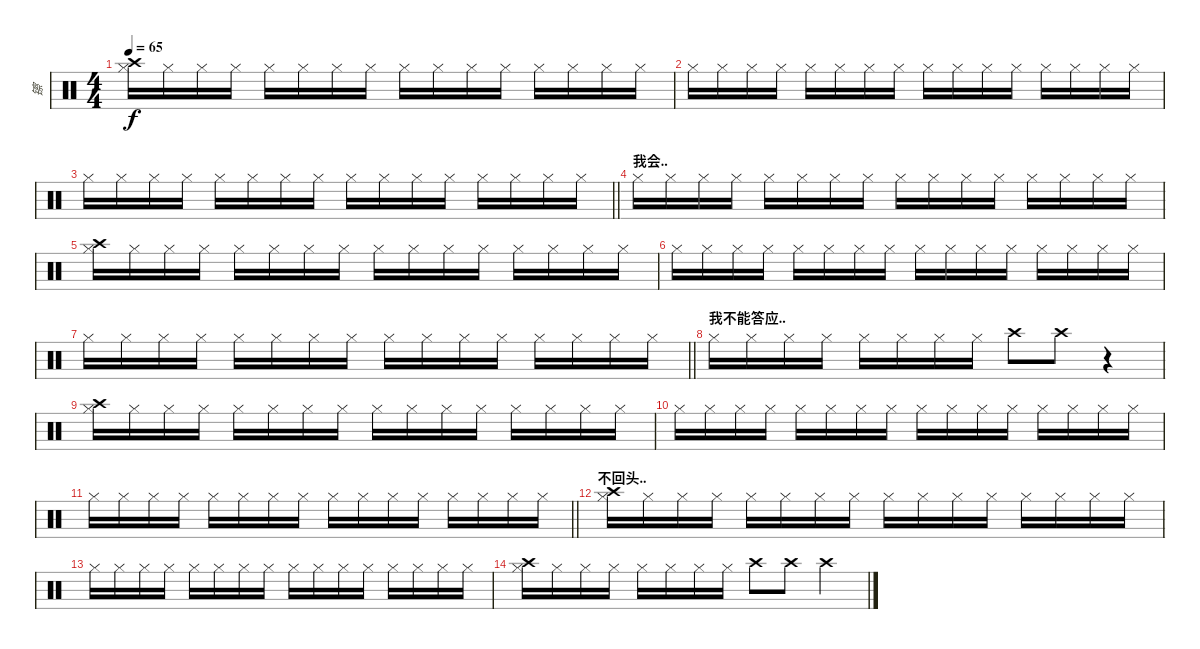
\track ("镲" "镲") {instrument percussion}
\staff {score}
\articulation defaults
\ts (4 4)
\tempo 65
\clef neutral
\ks c
("Crash high (hit)" "Hi-Hat (closed)").16{dy f} "Hi-Hat (closed)".16 "Hi-Hat (closed)".16 "Hi-Hat (closed)".16 "Hi-Hat (closed)".16 "Hi-Hat (closed)".16 "Hi-Hat (closed)".16 "Hi-Hat (closed)".16 "Hi-Hat (closed)".16 "Hi-Hat (closed)".16 "Hi-Hat (closed)".16 "Hi-Hat (closed)".16 "Hi-Hat (closed)".16 "Hi-Hat (closed)".16 "Hi-Hat (closed)".16 "Hi-Hat (closed)".16 |
"Hi-Hat (closed)".16 "Hi-Hat (closed)".16 "Hi-Hat (closed)".16 "Hi-Hat (closed)".16 "Hi-Hat (closed)".16 "Hi-Hat (closed)".16 "Hi-Hat (closed)".16 "Hi-Hat (closed)".16 "Hi-Hat (closed)".16 "Hi-Hat (closed)".16 "Hi-Hat (closed)".16 "Hi-Hat (closed)".16 "Hi-Hat (closed)".16 "Hi-Hat (closed)".16 "Hi-Hat (closed)".16 "Hi-Hat (closed)".16 |
\barLineRight lightlight "Hi-Hat (closed)".16 "Hi-Hat (closed)".16 "Hi-Hat (closed)".16 "Hi-Hat (closed)".16 "Hi-Hat (closed)".16 "Hi-Hat (closed)".16 "Hi-Hat (closed)".16 "Hi-Hat (closed)".16 "Hi-Hat (closed)".16 "Hi-Hat (closed)".16 "Hi-Hat (closed)".16 "Hi-Hat (closed)".16 "Hi-Hat (closed)".16 "Hi-Hat (closed)".16 "Hi-Hat (closed)".16 "Hi-Hat (closed)".16
|
\section ("" "我会..")
"Hi-Hat (closed)".16 "Hi-Hat (closed)".16 "Hi-Hat (closed)".16 "Hi-Hat (closed)".16 "Hi-Hat (closed)".16 "Hi-Hat (closed)".16 "Hi-Hat (closed)".16 "Hi-Hat (closed)".16 "Hi-Hat (closed)".16 "Hi-Hat (closed)".16 "Hi-Hat (closed)".16 "Hi-Hat (closed)".16 "Hi-Hat (closed)".16 "Hi-Hat (closed)".16 "Hi-Hat (closed)".16 "Hi-Hat (closed)".16 |
("Crash high (hit)" "Hi-Hat (closed)").16 "Hi-Hat (closed)".16 "Hi-Hat (closed)".16 "Hi-Hat (closed)".16 "Hi-Hat (closed)".16 "Hi-Hat (closed)".16 "Hi-Hat (closed)".16 "Hi-Hat (closed)".16 "Hi-Hat (closed)".16 "Hi-Hat (closed)".16 "Hi-Hat (closed)".16 "Hi-Hat (closed)".16 "Hi-Hat (closed)".16 "Hi-Hat (closed)".16 "Hi-Hat (closed)".16 "Hi-Hat (closed)".16 |
"Hi-Hat (closed)".16 "Hi-Hat (closed)".16 "Hi-Hat (closed)".16 "Hi-Hat (closed)".16 "Hi-Hat (closed)".16 "Hi-Hat (closed)".16 "Hi-Hat (closed)".16 "Hi-Hat (closed)".16 "Hi-Hat (closed)".16 "Hi-Hat (closed)".16 "Hi-Hat (closed)".16 "Hi-Hat (closed)".16 "Hi-Hat (closed)".16 "Hi-Hat (closed)".16 "Hi-Hat (closed)".16 "Hi-Hat (closed)".16 |
\barLineRight lightlight "Hi-Hat (closed)".16 "Hi-Hat (closed)".16 "Hi-Hat (closed)".16 "Hi-Hat (closed)".16 "Hi-Hat (closed)".16 "Hi-Hat (closed)".16 "Hi-Hat (closed)".16 "Hi-Hat (closed)".16 "Hi-Hat (closed)".16 "Hi-Hat (closed)".16 "Hi-Hat (closed)".16 "Hi-Hat (closed)".16 "Hi-Hat (closed)".16 "Hi-Hat (closed)".16 "Hi-Hat (closed)".16 "Hi-Hat (closed)".16
|
\section ("" "我不能答应..")
"Hi-Hat (closed)".16 "Hi-Hat (closed)".16 "Hi-Hat (closed)".16 "Hi-Hat (closed)".16 "Hi-Hat (closed)".16 "Hi-Hat (closed)".16 "Hi-Hat (closed)".16 "Hi-Hat (closed)".16 "Crash high (hit)".8 "Crash high (hit)".8 r.4 |
("Crash high (hit)" "Hi-Hat (closed)").16 "Hi-Hat (closed)".16 "Hi-Hat (closed)".16 "Hi-Hat (closed)".16 "Hi-Hat (closed)".16 "Hi-Hat (closed)".16 "Hi-Hat (closed)".16 "Hi-Hat (closed)".16 "Hi-Hat (closed)".16 "Hi-Hat (closed)".16 "Hi-Hat (closed)".16 "Hi-Hat (closed)".16 "Hi-Hat (closed)".16 "Hi-Hat (closed)".16 "Hi-Hat (closed)".16 "Hi-Hat (closed)".16 |
"Hi-Hat (closed)".16 "Hi-Hat (closed)".16 "Hi-Hat (closed)".16 "Hi-Hat (closed)".16 "Hi-Hat (closed)".16 "Hi-Hat (closed)".16 "Hi-Hat (closed)".16 "Hi-Hat (closed)".16 "Hi-Hat (closed)".16 "Hi-Hat (closed)".16 "Hi-Hat (closed)".16 "Hi-Hat (closed)".16 "Hi-Hat (closed)".16 "Hi-Hat (closed)".16 "Hi-Hat (closed)".16 "Hi-Hat (closed)".16 |
\barLineRight lightlight "Hi-Hat (closed)".16 "Hi-Hat (closed)".16 "Hi-Hat (closed)".16 "Hi-Hat (closed)".16 "Hi-Hat (closed)".16 "Hi-Hat (closed)".16 "Hi-Hat (closed)".16 "Hi-Hat (closed)".16 "Hi-Hat (closed)".16 "Hi-Hat (closed)".16 "Hi-Hat (closed)".16 "Hi-Hat (closed)".16 "Hi-Hat (closed)".16 "Hi-Hat (closed)".16 "Hi-Hat (closed)".16 "Hi-Hat (closed)".16
|
\section ("" "不回头..")
("Crash high (hit)" "Hi-Hat (closed)").16 "Hi-Hat (closed)".16 "Hi-Hat (closed)".16 "Hi-Hat (closed)".16 "Hi-Hat (closed)".16 "Hi-Hat (closed)".16 "Hi-Hat (closed)".16 "Hi-Hat (closed)".16 "Hi-Hat (closed)".16 "Hi-Hat (closed)".16 "Hi-Hat (closed)".16 "Hi-Hat (closed)".16 "Hi-Hat (closed)".16 "Hi-Hat (closed)".16 "Hi-Hat (closed)".16 "Hi-Hat (closed)".16 |
"Hi-Hat (closed)".16 "Hi-Hat (closed)".16 "Hi-Hat (closed)".16 "Hi-Hat (closed)".16 "Hi-Hat (closed)".16 "Hi-Hat (closed)".16 "Hi-Hat (closed)".16 "Hi-Hat (closed)".16 "Hi-Hat (closed)".16 "Hi-Hat (closed)".16 "Hi-Hat (closed)".16 "Hi-Hat (closed)".16 "Hi-Hat (closed)".16 "Hi-Hat (closed)".16 "Hi-Hat (closed)".16 "Hi-Hat (closed)".16 |
("Crash high (hit)" "Hi-Hat (closed)").16 "Hi-Hat (closed)".16 "Hi-Hat (closed)".16 "Hi-Hat (closed)".16 "Hi-Hat (closed)".16 "Hi-Hat (closed)".16 "Hi-Hat (closed)".16 "Hi-Hat (closed)".16 "Crash high (hit)".8 "Crash high (hit)".8 "Crash high (hit)".4
